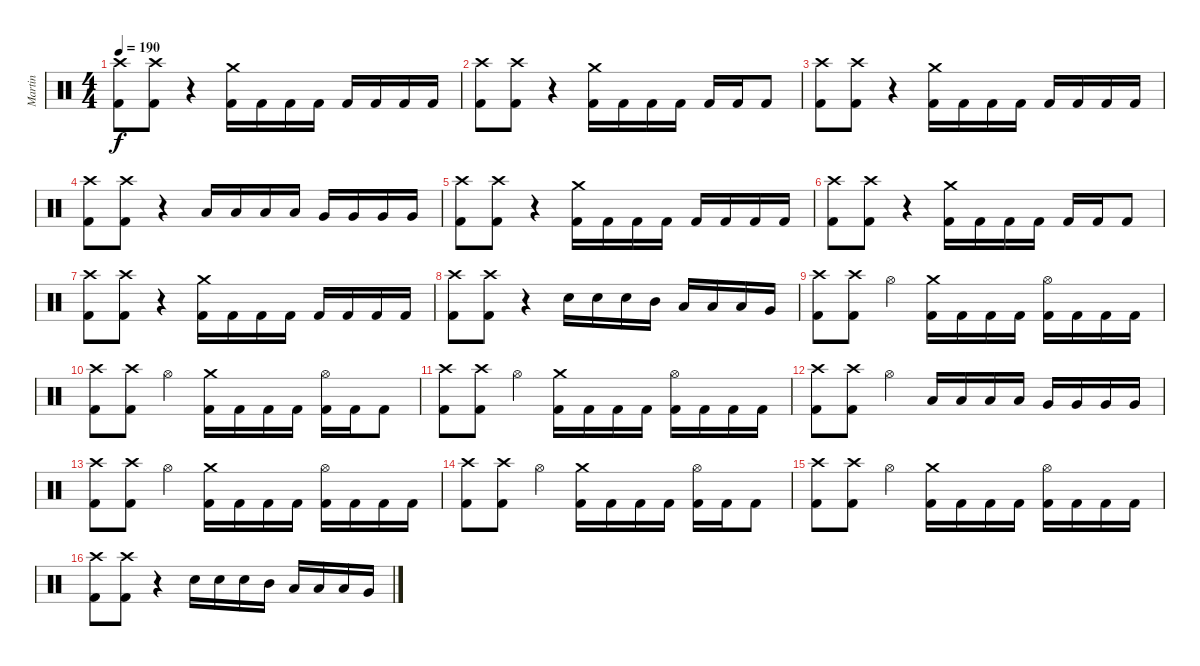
\track ("Martin" "Martin") {instrument percussion}
\staff {score}
\articulation defaults
\ts (4 4)
\tempo 190
\clef neutral
\ks c
("Crash high (hit)" "Kick (hit) 2").8{dy f} ("Crash high (hit)" "Kick (hit) 2").8 r.4 ("Crash medium (hit)" "Kick (hit) 2").16 "Kick (hit) 2".16 "Kick (hit) 2".16 "Kick (hit) 2".16 "Kick (hit) 2".16 "Kick (hit) 2".16 "Kick (hit) 2".16 "Kick (hit) 2".16 |
("Crash high (hit)" "Kick (hit) 2").8 ("Crash high (hit)" "Kick (hit) 2").8 r.4 ("Crash medium (hit)" "Kick (hit) 2").16 "Kick (hit) 2".16 "Kick (hit) 2".16 "Kick (hit) 2".16 "Kick (hit) 2".16 "Kick (hit) 2".16 "Kick (hit) 2".8 |
("Crash high (hit)" "Kick (hit) 2").8 ("Crash high (hit)" "Kick (hit) 2").8 r.4 ("Crash medium (hit)" "Kick (hit) 2").16 "Kick (hit) 2".16 "Kick (hit) 2".16 "Kick (hit) 2".16 "Kick (hit) 2".16 "Kick (hit) 2".16 "Kick (hit) 2".16 "Kick (hit) 2".16 |
("Crash high (hit)" "Kick (hit) 2").8 ("Crash high (hit)" "Kick (hit) 2").8 r.4 "Low Tom (hit)".16 "Low Tom (hit)".16 "Low Tom (hit)".16 "Low Tom (hit)".16 "Very Low Tom (hit)".16 "Very Low Tom (hit)".16 "Very Low Tom (hit)".16 "Very Low Tom (hit)".16 |
("Crash high (hit)" "Kick (hit) 2").8 ("Crash high (hit)" "Kick (hit) 2").8 r.4 ("Crash medium (hit)" "Kick (hit) 2").16 "Kick (hit) 2".16 "Kick (hit) 2".16 "Kick (hit) 2".16 "Kick (hit) 2".16 "Kick (hit) 2".16 "Kick (hit) 2".16 "Kick (hit) 2".16 |
("Crash high (hit)" "Kick (hit) 2").8 ("Crash high (hit)" "Kick (hit) 2").8 r.4 ("Crash medium (hit)" "Kick (hit) 2").16 "Kick (hit) 2".16 "Kick (hit) 2".16 "Kick (hit) 2".16 "Kick (hit) 2".16 "Kick (hit) 2".16 "Kick (hit) 2".8 |
("Crash high (hit)" "Kick (hit) 2").8 ("Crash high (hit)" "Kick (hit) 2").8 r.4 ("Crash medium (hit)" "Kick (hit) 2").16 "Kick (hit) 2".16 "Kick (hit) 2".16 "Kick (hit) 2".16 "Kick (hit) 2".16 "Kick (hit) 2".16 "Kick (hit) 2".16 "Kick (hit) 2".16 |
("Crash high (hit)" "Kick (hit) 2").8 ("Crash high (hit)" "Kick (hit) 2").8 r.4 "Snare (hit) 2".16 "Snare (hit) 2".16 "Snare (hit) 2".16 "Mid Tom (hit)".16 "Low Tom (hit)".16 "Low Tom (hit)".16 "Low Tom (hit)".16 "Very Low Tom (hit)".16 |
("Crash high (hit)" "Kick (hit) 2").8 ("Crash high (hit)" "Kick (hit) 2").8 "Hi-Hat (open)".4 ("Crash medium (hit)" "Kick (hit) 2").16 "Kick (hit) 2".16 "Kick (hit) 2".16 "Kick (hit) 2".16 ("Hi-Hat (open)" "Kick (hit) 2").16 "Kick (hit) 2".16 "Kick (hit) 2".16 "Kick (hit) 2".16 |
("Crash high (hit)" "Kick (hit) 2").8 ("Crash high (hit)" "Kick (hit) 2").8 "Hi-Hat (open)".4 ("Crash medium (hit)" "Kick (hit) 2").16 "Kick (hit) 2".16 "Kick (hit) 2".16 "Kick (hit) 2".16 ("Hi-Hat (open)" "Kick (hit) 2").16 "Kick (hit) 2".16 "Kick (hit) 2".8 |
("Crash high (hit)" "Kick (hit) 2").8 ("Crash high (hit)" "Kick (hit) 2").8 "Hi-Hat (open)".4 ("Crash medium (hit)" "Kick (hit) 2").16 "Kick (hit) 2".16 "Kick (hit) 2".16 "Kick (hit) 2".16 ("Hi-Hat (open)" "Kick (hit) 2").16 "Kick (hit) 2".16 "Kick (hit) 2".16 "Kick (hit) 2".16 |
("Crash high (hit)" "Kick (hit) 2").8 ("Crash high (hit)" "Kick (hit) 2").8 "Hi-Hat (open)".4 "Low Tom (hit)".16 "Low Tom (hit)".16 "Low Tom (hit)".16 "Low Tom (hit)".16 "Very Low Tom (hit)".16 "Very Low Tom (hit)".16 "Very Low Tom (hit)".16 "Very Low Tom (hit)".16 |
("Crash high (hit)" "Kick (hit) 2").8 ("Crash high (hit)" "Kick (hit) 2").8 "Hi-Hat (open)".4 ("Crash medium (hit)" "Kick (hit) 2").16 "Kick (hit) 2".16 "Kick (hit) 2".16 "Kick (hit) 2".16 ("Hi-Hat (open)" "Kick (hit) 2").16 "Kick (hit) 2".16 "Kick (hit) 2".16 "Kick (hit) 2".16 |
("Crash high (hit)" "Kick (hit) 2").8 ("Crash high (hit)" "Kick (hit) 2").8 "Hi-Hat (open)".4 ("Crash medium (hit)" "Kick (hit) 2").16 "Kick (hit) 2".16 "Kick (hit) 2".16 "Kick (hit) 2".16 ("Hi-Hat (open)" "Kick (hit) 2").16 "Kick (hit) 2".16 "Kick (hit) 2".8 |
("Crash high (hit)" "Kick (hit) 2").8 ("Crash high (hit)" "Kick (hit) 2").8 "Hi-Hat (open)".4 ("Crash medium (hit)" "Kick (hit) 2").16 "Kick (hit) 2".16 "Kick (hit) 2".16 "Kick (hit) 2".16 ("Hi-Hat (open)" "Kick (hit) 2").16 "Kick (hit) 2".16 "Kick (hit) 2".16 "Kick (hit) 2".16 |
("Crash high (hit)" "Kick (hit) 2").8 ("Crash high (hit)" "Kick (hit) 2").8 r.4 "Snare (hit) 2".16 "Snare (hit) 2".16 "Snare (hit) 2".16 "Mid Tom (hit)".16 "Low Tom (hit)".16 "Low Tom (hit)".16 "Low Tom (hit)".16 "Very Low Tom (hit)".16
